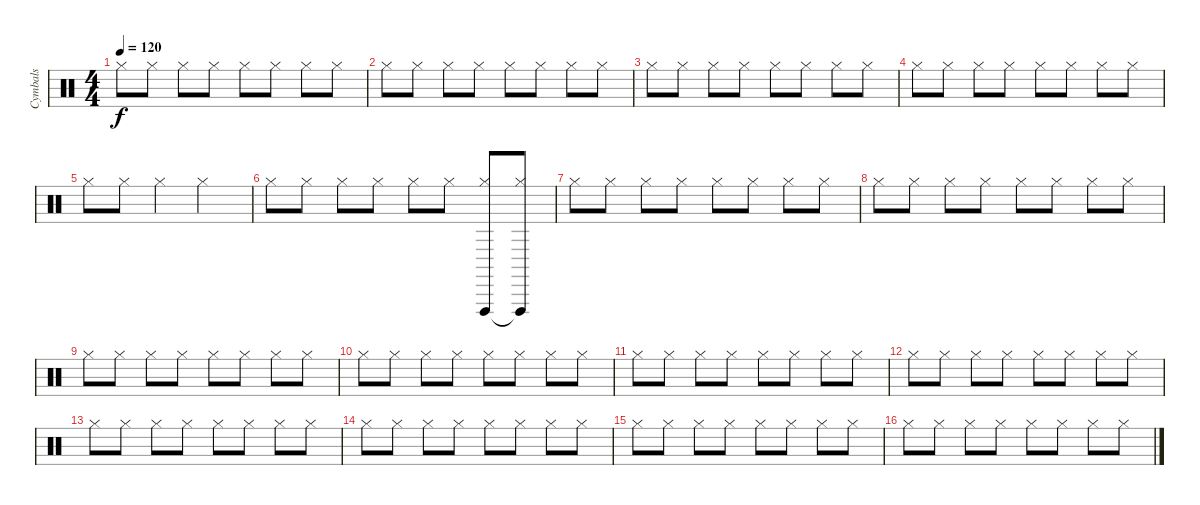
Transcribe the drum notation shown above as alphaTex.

\track ("Cymbals" "Cymbals") {instrument percussion}
\staff {score}
\articulation defaults
\ts (4 4)
\tempo 120
\clef neutral
\ks c "Hi-Hat (closed)".8{dy f} "Hi-Hat (closed)".8 "Hi-Hat (closed)".8 "Hi-Hat (closed)".8 "Hi-Hat (closed)".8 "Hi-Hat (closed)".8 "Hi-Hat (closed)".8 "Hi-Hat (closed)".8
|
"Hi-Hat (closed)".8 "Hi-Hat (closed)".8 "Hi-Hat (closed)".8 "Hi-Hat (closed)".8 "Hi-Hat (closed)".8 "Hi-Hat (closed)".8 "Hi-Hat (closed)".8 "Hi-Hat (closed)".8 |
"Hi-Hat (closed)".8 "Hi-Hat (closed)".8 "Hi-Hat (closed)".8 "Hi-Hat (closed)".8 "Hi-Hat (closed)".8 "Hi-Hat (closed)".8 "Hi-Hat (closed)".8 "Hi-Hat (closed)".8 |
"Hi-Hat (closed)".8 "Hi-Hat (closed)".8 "Hi-Hat (closed)".8 "Hi-Hat (closed)".8 "Hi-Hat (closed)".8 "Hi-Hat (closed)".8 "Hi-Hat (closed)".8 "Hi-Hat (closed)".8 |
"Hi-Hat (closed)".8 "Hi-Hat (closed)".8 "Hi-Hat (closed)".4 "Hi-Hat (closed)".2 |
"Hi-Hat (closed)".8 "Hi-Hat (closed)".8 "Hi-Hat (closed)".8 "Hi-Hat (closed)".8 "Hi-Hat (closed)".8 "Hi-Hat (closed)".8 ("Vibraslap (hit)" "Hi-Hat (closed)").8 ("Vibraslap (hit)"{t} "Hi-Hat (closed)").8 |
"Hi-Hat (closed)".8 "Hi-Hat (closed)".8 "Hi-Hat (closed)".8 "Hi-Hat (closed)".8 "Hi-Hat (closed)".8 "Hi-Hat (closed)".8 "Hi-Hat (closed)".8 "Hi-Hat (closed)".8 |
"Hi-Hat (closed)".8 "Hi-Hat (closed)".8 "Hi-Hat (closed)".8 "Hi-Hat (closed)".8 "Hi-Hat (closed)".8 "Hi-Hat (closed)".8 "Hi-Hat (closed)".8 "Hi-Hat (closed)".8 |
"Hi-Hat (closed)".8 "Hi-Hat (closed)".8 "Hi-Hat (closed)".8 "Hi-Hat (closed)".8 "Hi-Hat (closed)".8 "Hi-Hat (closed)".8 "Hi-Hat (closed)".8 "Hi-Hat (closed)".8 |
"Hi-Hat (closed)".8 "Hi-Hat (closed)".8 "Hi-Hat (closed)".8 "Hi-Hat (closed)".8 "Hi-Hat (closed)".8 "Hi-Hat (closed)".8 "Hi-Hat (closed)".8 "Hi-Hat (closed)".8 |
"Hi-Hat (closed)".8 "Hi-Hat (closed)".8 "Hi-Hat (closed)".8 "Hi-Hat (closed)".8 "Hi-Hat (closed)".8 "Hi-Hat (closed)".8 "Hi-Hat (closed)".8 "Hi-Hat (closed)".8 |
"Hi-Hat (closed)".8 "Hi-Hat (closed)".8 "Hi-Hat (closed)".8 "Hi-Hat (closed)".8 "Hi-Hat (closed)".8 "Hi-Hat (closed)".8 "Hi-Hat (closed)".8 "Hi-Hat (closed)".8 |
"Hi-Hat (closed)".8 "Hi-Hat (closed)".8 "Hi-Hat (closed)".8 "Hi-Hat (closed)".8 "Hi-Hat (closed)".8 "Hi-Hat (closed)".8 "Hi-Hat (closed)".8 "Hi-Hat (closed)".8 |
"Hi-Hat (closed)".8 "Hi-Hat (closed)".8 "Hi-Hat (closed)".8 "Hi-Hat (closed)".8 "Hi-Hat (closed)".8 "Hi-Hat (closed)".8 "Hi-Hat (closed)".8 "Hi-Hat (closed)".8 |
"Hi-Hat (closed)".8 "Hi-Hat (closed)".8 "Hi-Hat (closed)".8 "Hi-Hat (closed)".8 "Hi-Hat (closed)".8 "Hi-Hat (closed)".8 "Hi-Hat (closed)".8 "Hi-Hat (closed)".8 |
"Hi-Hat (closed)".8 "Hi-Hat (closed)".8 "Hi-Hat (closed)".8 "Hi-Hat (closed)".8 "Hi-Hat (closed)".8 "Hi-Hat (closed)".8 "Hi-Hat (closed)".8 "Hi-Hat (closed)".8
